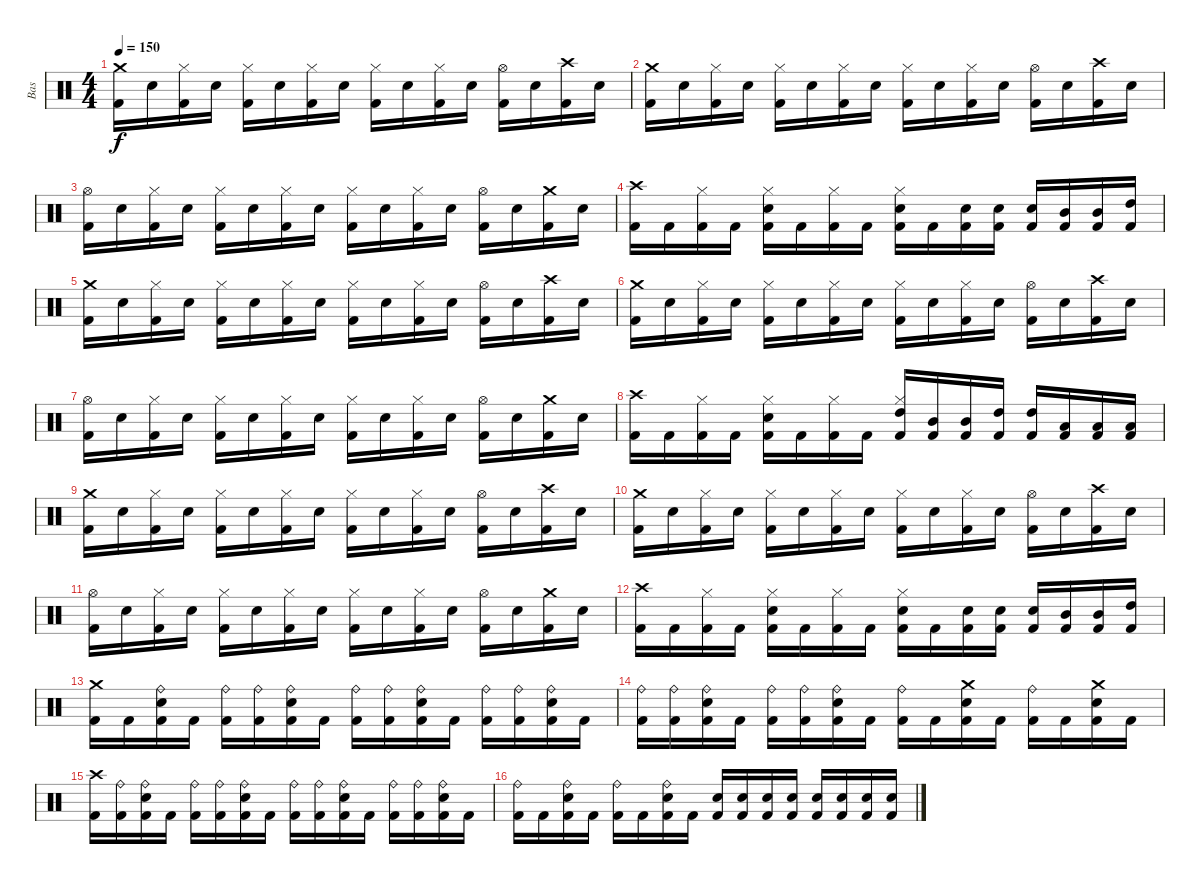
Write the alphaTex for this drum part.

\track ("Bas" "Bas") {instrument percussion}
\staff {score}
\articulation defaults
\ts (4 4)
\tempo 150
\clef neutral
\ks c
("Crash medium (hit)" "Kick (hit) 2").16{dy f} "Snare (hit) 2".16 ("Hi-Hat (closed)" "Kick (hit) 2").16 "Snare (hit) 2".16 ("Hi-Hat (closed)" "Kick (hit) 2").16 "Snare (hit) 2".16 ("Hi-Hat (closed)" "Kick (hit) 2").16 "Snare (hit) 2".16 ("Hi-Hat (closed)" "Kick (hit) 2").16 "Snare (hit) 2".16 ("Hi-Hat (closed)" "Kick (hit) 2").16 "Snare (hit) 2".16 ("Hi-Hat (open)" "Kick (hit) 2").16 "Snare (hit) 2".16 ("Crash high (hit)" "Kick (hit) 2").16 "Snare (hit) 2".16 |
("Crash medium (hit)" "Kick (hit) 2").16 "Snare (hit) 2".16 ("Hi-Hat (closed)" "Kick (hit) 2").16 "Snare (hit) 2".16 ("Hi-Hat (closed)" "Kick (hit) 2").16 "Snare (hit) 2".16 ("Hi-Hat (closed)" "Kick (hit) 2").16 "Snare (hit) 2".16 ("Hi-Hat (closed)" "Kick (hit) 2").16 "Snare (hit) 2".16 ("Hi-Hat (closed)" "Kick (hit) 2").16 "Snare (hit) 2".16 ("Hi-Hat (open)" "Kick (hit) 2").16 "Snare (hit) 2".16 ("Crash high (hit)" "Kick (hit) 2").16 "Snare (hit) 2".16 |
("Hi-Hat (open)" "Kick (hit) 2").16 "Snare (hit) 2".16 ("Hi-Hat (closed)" "Kick (hit) 2").16 "Snare (hit) 2".16 ("Hi-Hat (closed)" "Kick (hit) 2").16 "Snare (hit) 2".16 ("Hi-Hat (closed)" "Kick (hit) 2").16 "Snare (hit) 2".16 ("Hi-Hat (closed)" "Kick (hit) 2").16 "Snare (hit) 2".16 ("Hi-Hat (closed)" "Kick (hit) 2").16 "Snare (hit) 2".16 ("Hi-Hat (open)" "Kick (hit) 2").16 "Snare (hit) 2".16 ("Crash medium (hit)" "Kick (hit) 2").16 "Snare (hit) 2".16 |
("Crash high (hit)" "Kick (hit) 2").16 "Kick (hit) 2".16 ("Hi-Hat (closed)" "Kick (hit) 2").16 "Kick (hit) 2".16 ("Hi-Hat (closed)" "Snare (hit) 2" "Kick (hit) 2").16 "Kick (hit) 2".16 ("Hi-Hat (closed)" "Kick (hit) 2").16 "Kick (hit) 2".16 ("Hi-Hat (closed)" "Snare (hit) 2" "Kick (hit) 2").16 "Kick (hit) 2".16 ("Snare (hit) 2" "Kick (hit) 2").16 ("Snare (hit) 2" "Kick (hit) 2").16 ("Snare (hit) 2" "Kick (hit) 2").16 ("Mid Tom (hit)" "Kick (hit) 2").16 ("Mid Tom (hit)" "Kick (hit) 2").16 ("High Tom (hit)" "Kick (hit) 2").16 |
("Crash medium (hit)" "Kick (hit) 2").16 "Snare (hit) 2".16 ("Hi-Hat (closed)" "Kick (hit) 2").16 "Snare (hit) 2".16 ("Hi-Hat (closed)" "Kick (hit) 2").16 "Snare (hit) 2".16 ("Hi-Hat (closed)" "Kick (hit) 2").16 "Snare (hit) 2".16 ("Hi-Hat (closed)" "Kick (hit) 2").16 "Snare (hit) 2".16 ("Hi-Hat (closed)" "Kick (hit) 2").16 "Snare (hit) 2".16 ("Hi-Hat (open)" "Kick (hit) 2").16 "Snare (hit) 2".16 ("Crash high (hit)" "Kick (hit) 2").16 "Snare (hit) 2".16 |
("Crash medium (hit)" "Kick (hit) 2").16 "Snare (hit) 2".16 ("Hi-Hat (closed)" "Kick (hit) 2").16 "Snare (hit) 2".16 ("Hi-Hat (closed)" "Kick (hit) 2").16 "Snare (hit) 2".16 ("Hi-Hat (closed)" "Kick (hit) 2").16 "Snare (hit) 2".16 ("Hi-Hat (closed)" "Kick (hit) 2").16 "Snare (hit) 2".16 ("Hi-Hat (closed)" "Kick (hit) 2").16 "Snare (hit) 2".16 ("Hi-Hat (open)" "Kick (hit) 2").16 "Snare (hit) 2".16 ("Crash high (hit)" "Kick (hit) 2").16 "Snare (hit) 2".16 |
("Hi-Hat (open)" "Kick (hit) 2").16 "Snare (hit) 2".16 ("Hi-Hat (closed)" "Kick (hit) 2").16 "Snare (hit) 2".16 ("Hi-Hat (closed)" "Kick (hit) 2").16 "Snare (hit) 2".16 ("Hi-Hat (closed)" "Kick (hit) 2").16 "Snare (hit) 2".16 ("Hi-Hat (closed)" "Kick (hit) 2").16 "Snare (hit) 2".16 ("Hi-Hat (closed)" "Kick (hit) 2").16 "Snare (hit) 2".16 ("Hi-Hat (open)" "Kick (hit) 2").16 "Snare (hit) 2".16 ("Crash medium (hit)" "Kick (hit) 2").16 "Snare (hit) 2".16 |
("Crash high (hit)" "Kick (hit) 2").16 "Kick (hit) 2".16 ("Hi-Hat (closed)" "Kick (hit) 2").16 "Kick (hit) 2".16 ("Hi-Hat (closed)" "Snare (hit) 2" "Kick (hit) 2").16 "Kick (hit) 2".16 ("Hi-Hat (closed)" "Kick (hit) 2").16 "Kick (hit) 2".16 ("Hi-Hat (closed)" "High Tom (hit)" "Kick (hit) 2").16 ("Mid Tom (hit)" "Kick (hit) 2").16 ("Mid Tom (hit)" "Kick (hit) 2").16 ("High Tom (hit)" "Kick (hit) 2").16 ("High Tom (hit)" "Kick (hit) 2").16 ("Low Tom (hit)" "Kick (hit) 2").16 ("Low Tom (hit)" "Kick (hit) 2").16 ("Low Tom (hit)" "Kick (hit) 2").16 |
("Crash medium (hit)" "Kick (hit) 2").16 "Snare (hit) 2".16 ("Hi-Hat (closed)" "Kick (hit) 2").16 "Snare (hit) 2".16 ("Hi-Hat (closed)" "Kick (hit) 2").16 "Snare (hit) 2".16 ("Hi-Hat (closed)" "Kick (hit) 2").16 "Snare (hit) 2".16 ("Hi-Hat (closed)" "Kick (hit) 2").16 "Snare (hit) 2".16 ("Hi-Hat (closed)" "Kick (hit) 2").16 "Snare (hit) 2".16 ("Hi-Hat (open)" "Kick (hit) 2").16 "Snare (hit) 2".16 ("Crash high (hit)" "Kick (hit) 2").16 "Snare (hit) 2".16 |
("Crash medium (hit)" "Kick (hit) 2").16 "Snare (hit) 2".16 ("Hi-Hat (closed)" "Kick (hit) 2").16 "Snare (hit) 2".16 ("Hi-Hat (closed)" "Kick (hit) 2").16 "Snare (hit) 2".16 ("Hi-Hat (closed)" "Kick (hit) 2").16 "Snare (hit) 2".16 ("Hi-Hat (closed)" "Kick (hit) 2").16 "Snare (hit) 2".16 ("Hi-Hat (closed)" "Kick (hit) 2").16 "Snare (hit) 2".16 ("Hi-Hat (open)" "Kick (hit) 2").16 "Snare (hit) 2".16 ("Crash high (hit)" "Kick (hit) 2").16 "Snare (hit) 2".16 |
("Hi-Hat (open)" "Kick (hit) 2").16 "Snare (hit) 2".16 ("Hi-Hat (closed)" "Kick (hit) 2").16 "Snare (hit) 2".16 ("Hi-Hat (closed)" "Kick (hit) 2").16 "Snare (hit) 2".16 ("Hi-Hat (closed)" "Kick (hit) 2").16 "Snare (hit) 2".16 ("Hi-Hat (closed)" "Kick (hit) 2").16 "Snare (hit) 2".16 ("Hi-Hat (closed)" "Kick (hit) 2").16 "Snare (hit) 2".16 ("Hi-Hat (open)" "Kick (hit) 2").16 "Snare (hit) 2".16 ("Crash medium (hit)" "Kick (hit) 2").16 "Snare (hit) 2".16 |
("Crash high (hit)" "Kick (hit) 2").16 "Kick (hit) 2".16 ("Hi-Hat (closed)" "Kick (hit) 2").16 "Kick (hit) 2".16 ("Hi-Hat (closed)" "Snare (hit) 2" "Kick (hit) 2").16 "Kick (hit) 2".16 ("Hi-Hat (closed)" "Kick (hit) 2").16 "Kick (hit) 2".16 ("Hi-Hat (closed)" "Snare (hit) 2" "Kick (hit) 2").16 "Kick (hit) 2".16 ("Snare (hit) 2" "Kick (hit) 2").16 ("Snare (hit) 2" "Kick (hit) 2").16 ("Snare (hit) 2" "Kick (hit) 2").16 ("Mid Tom (hit)" "Kick (hit) 2").16 ("Mid Tom (hit)" "Kick (hit) 2").16 ("High Tom (hit)" "Kick (hit) 2").16 |
("Crash medium (hit)" "Kick (hit) 2").16 "Kick (hit) 2".16 ("Ride (bell)" "Snare (hit) 2" "Kick (hit) 2").16 "Kick (hit) 2".16 ("Ride (bell)" "Kick (hit) 2").16 ("Ride (bell)" "Kick (hit) 2").16 ("Ride (bell)" "Snare (hit) 2" "Kick (hit) 2").16 "Kick (hit) 2".16 ("Ride (bell)" "Kick (hit) 2").16 ("Ride (bell)" "Kick (hit) 2").16 ("Ride (bell)" "Snare (hit) 2" "Kick (hit) 2").16 "Kick (hit) 2".16 ("Ride (bell)" "Kick (hit) 2").16 ("Ride (bell)" "Kick (hit) 2").16 ("Ride (bell)" "Snare (hit) 2" "Kick (hit) 2").16 "Kick (hit) 2".16 |
("Ride (bell)" "Kick (hit) 2").16 ("Ride (bell)" "Kick (hit) 2").16 ("Ride (bell)" "Snare (hit) 2" "Kick (hit) 2").16 "Kick (hit) 2".16 ("Ride (bell)" "Kick (hit) 2").16 ("Ride (bell)" "Kick (hit) 2").16 ("Ride (bell)" "Snare (hit) 2" "Kick (hit) 2").16 "Kick (hit) 2".16 ("Ride (bell)" "Kick (hit) 2").16 "Kick (hit) 2".16 ("Crash medium (hit)" "Snare (hit) 2" "Kick (hit) 2").16 "Kick (hit) 2".16 ("Ride (bell)" "Kick (hit) 2").16 "Kick (hit) 2".16 ("Crash medium (hit)" "Snare (hit) 2" "Kick (hit) 2").16 "Kick (hit) 2".16 |
("Crash high (hit)" "Kick (hit) 2").16 ("Ride (bell)" "Kick (hit) 2").16 ("Ride (bell)" "Snare (hit) 2" "Kick (hit) 2").16 "Kick (hit) 2".16 ("Ride (bell)" "Kick (hit) 2").16 ("Ride (bell)" "Kick (hit) 2").16 ("Ride (bell)" "Snare (hit) 2" "Kick (hit) 2").16 "Kick (hit) 2".16 ("Ride (bell)" "Kick (hit) 2").16 ("Ride (bell)" "Kick (hit) 2").16 ("Ride (bell)" "Snare (hit) 2" "Kick (hit) 2").16 "Kick (hit) 2".16 ("Ride (bell)" "Kick (hit) 2").16 ("Ride (bell)" "Kick (hit) 2").16 ("Ride (bell)" "Snare (hit) 2" "Kick (hit) 2").16 "Kick (hit) 2".16 |
("Ride (bell)" "Kick (hit) 2").16 "Kick (hit) 2".16 ("Ride (bell)" "Snare (hit) 2" "Kick (hit) 2").16 "Kick (hit) 2".16 ("Ride (bell)" "Kick (hit) 2").16 "Kick (hit) 2".16 ("Ride (bell)" "Snare (hit) 2" "Kick (hit) 2").16 "Kick (hit) 2".16 ("Snare (hit) 2" "Kick (hit) 2").16 ("Snare (hit) 2" "Kick (hit) 2").16 ("Snare (hit) 2" "Kick (hit) 2").16 ("Snare (hit) 2" "Kick (hit) 2").16 ("Snare (hit) 2" "Kick (hit) 2").16 ("Snare (hit) 2" "Kick (hit) 2").16 ("Snare (hit) 2" "Kick (hit) 2").16 ("Snare (hit) 2" "Kick (hit) 2").16
